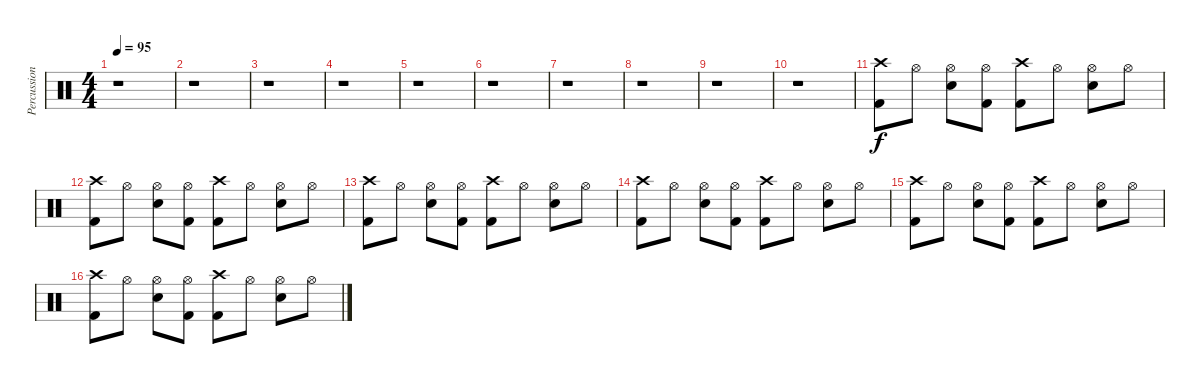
\track ("Percussion" "Percussion") {instrument percussion}
\staff {score}
\articulation defaults
\ts (4 4)
\tempo 95
\clef neutral
\ks c
r.1{dy f} |
r.1 |
r.1 |
r.1 |
r.1 |
r.1 |
r.1 |
r.1 |
r.1 |
r.1 |
("Crash high (hit)" "Kick (hit) 2").8 "Hi-Hat (open)".8 ("Hi-Hat (open)" "Snare (hit) 2").8 ("Hi-Hat (open)" "Kick (hit) 2").8 ("Crash high (hit)" "Kick (hit) 2").8 "Hi-Hat (open)".8 ("Hi-Hat (open)" "Snare (hit) 2").8 "Hi-Hat (open)".8 |
("Crash high (hit)" "Kick (hit) 2").8 "Hi-Hat (open)".8 ("Hi-Hat (open)" "Snare (hit) 2").8 ("Hi-Hat (open)" "Kick (hit) 2").8 ("Crash high (hit)" "Kick (hit) 2").8 "Hi-Hat (open)".8 ("Hi-Hat (open)" "Snare (hit) 2").8 "Hi-Hat (open)".8 |
("Crash high (hit)" "Kick (hit) 2").8 "Hi-Hat (open)".8 ("Hi-Hat (open)" "Snare (hit) 2").8 ("Hi-Hat (open)" "Kick (hit) 2").8 ("Crash high (hit)" "Kick (hit) 2").8 "Hi-Hat (open)".8 ("Hi-Hat (open)" "Snare (hit) 2").8 "Hi-Hat (open)".8 |
("Crash high (hit)" "Kick (hit) 2").8 "Hi-Hat (open)".8 ("Hi-Hat (open)" "Snare (hit) 2").8 ("Hi-Hat (open)" "Kick (hit) 2").8 ("Crash high (hit)" "Kick (hit) 2").8 "Hi-Hat (open)".8 ("Hi-Hat (open)" "Snare (hit) 2").8 "Hi-Hat (open)".8 |
("Crash high (hit)" "Kick (hit) 2").8 "Hi-Hat (open)".8 ("Hi-Hat (open)" "Snare (hit) 2").8 ("Hi-Hat (open)" "Kick (hit) 2").8 ("Crash high (hit)" "Kick (hit) 2").8 "Hi-Hat (open)".8 ("Hi-Hat (open)" "Snare (hit) 2").8 "Hi-Hat (open)".8 |
("Crash high (hit)" "Kick (hit) 2").8 "Hi-Hat (open)".8 ("Hi-Hat (open)" "Snare (hit) 2").8 ("Hi-Hat (open)" "Kick (hit) 2").8 ("Crash high (hit)" "Kick (hit) 2").8 "Hi-Hat (open)".8 ("Hi-Hat (open)" "Snare (hit) 2").8 "Hi-Hat (open)".8
